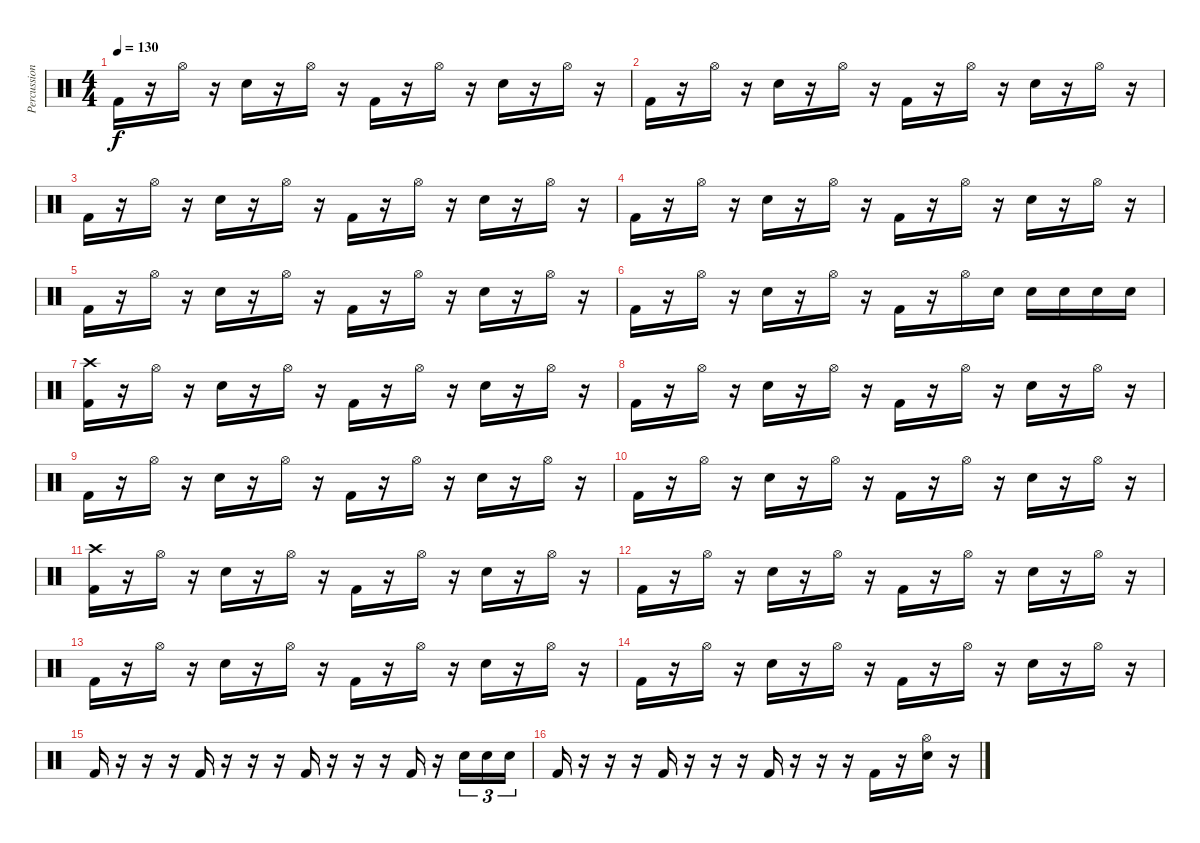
\track ("Percussion" "Percussion") {instrument percussion}
\staff {score}
\articulation defaults
\ts (4 4)
\tempo 130
\clef neutral
\ks c "Kick (hit) 2".16{dy f}
r.16 "Hi-Hat (open)".16 r.16 "Snare (hit) 2".16 r.16 "Hi-Hat (open)".16 r.16 "Kick (hit) 2".16 r.16 "Hi-Hat (open)".16 r.16 "Snare (hit) 2".16 r.16 "Hi-Hat (open)".16 r.16 |
"Kick (hit) 2".16 r.16 "Hi-Hat (open)".16 r.16 "Snare (hit) 2".16 r.16 "Hi-Hat (open)".16 r.16 "Kick (hit) 2".16 r.16 "Hi-Hat (open)".16 r.16 "Snare (hit) 2".16 r.16 "Hi-Hat (open)".16 r.16 |
"Kick (hit) 2".16 r.16 "Hi-Hat (open)".16 r.16 "Snare (hit) 2".16 r.16 "Hi-Hat (open)".16 r.16 "Kick (hit) 2".16 r.16 "Hi-Hat (open)".16 r.16 "Snare (hit) 2".16 r.16 "Hi-Hat (open)".16 r.16 |
"Kick (hit) 2".16 r.16 "Hi-Hat (open)".16 r.16 "Snare (hit) 2".16 r.16 "Hi-Hat (open)".16 r.16 "Kick (hit) 2".16 r.16 "Hi-Hat (open)".16 r.16 "Snare (hit) 2".16 r.16 "Hi-Hat (open)".16 r.16 |
"Kick (hit) 2".16 r.16 "Hi-Hat (open)".16 r.16 "Snare (hit) 2".16 r.16 "Hi-Hat (open)".16 r.16 "Kick (hit) 2".16 r.16 "Hi-Hat (open)".16 r.16 "Snare (hit) 2".16 r.16 "Hi-Hat (open)".16 r.16 |
"Kick (hit) 2".16 r.16 "Hi-Hat (open)".16 r.16 "Snare (hit) 2".16 r.16 "Hi-Hat (open)".16 r.16 "Kick (hit) 2".16 r.16 "Hi-Hat (open)".16 "Snare (hit) 2".16 "Snare (hit) 2".16 "Snare (hit) 2".16 "Snare (hit) 2".16 "Snare (hit) 2".16 |
("Crash high (hit)" "Kick (hit) 2").16 r.16 "Hi-Hat (open)".16 r.16 "Snare (hit) 2".16 r.16 "Hi-Hat (open)".16 r.16 "Kick (hit) 2".16 r.16 "Hi-Hat (open)".16 r.16 "Snare (hit) 2".16 r.16 "Hi-Hat (open)".16 r.16 |
"Kick (hit) 2".16 r.16 "Hi-Hat (open)".16 r.16 "Snare (hit) 2".16 r.16 "Hi-Hat (open)".16 r.16 "Kick (hit) 2".16 r.16 "Hi-Hat (open)".16 r.16 "Snare (hit) 2".16 r.16 "Hi-Hat (open)".16 r.16 |
"Kick (hit) 2".16 r.16 "Hi-Hat (open)".16 r.16 "Snare (hit) 2".16 r.16 "Hi-Hat (open)".16 r.16 "Kick (hit) 2".16 r.16 "Hi-Hat (open)".16 r.16 "Snare (hit) 2".16 r.16 "Hi-Hat (open)".16 r.16 |
"Kick (hit) 2".16 r.16 "Hi-Hat (open)".16 r.16 "Snare (hit) 2".16 r.16 "Hi-Hat (open)".16 r.16 "Kick (hit) 2".16 r.16 "Hi-Hat (open)".16 r.16 "Snare (hit) 2".16 r.16 "Hi-Hat (open)".16 r.16 |
("Crash high (hit)" "Kick (hit) 2").16 r.16 "Hi-Hat (open)".16 r.16 "Snare (hit) 2".16 r.16 "Hi-Hat (open)".16 r.16 "Kick (hit) 2".16 r.16 "Hi-Hat (open)".16 r.16 "Snare (hit) 2".16 r.16 "Hi-Hat (open)".16 r.16 |
"Kick (hit) 2".16 r.16 "Hi-Hat (open)".16 r.16 "Snare (hit) 2".16 r.16 "Hi-Hat (open)".16 r.16 "Kick (hit) 2".16 r.16 "Hi-Hat (open)".16 r.16 "Snare (hit) 2".16 r.16 "Hi-Hat (open)".16 r.16 |
"Kick (hit) 2".16 r.16 "Hi-Hat (open)".16 r.16 "Snare (hit) 2".16 r.16 "Hi-Hat (open)".16 r.16 "Kick (hit) 2".16 r.16 "Hi-Hat (open)".16 r.16 "Snare (hit) 2".16 r.16 "Hi-Hat (open)".16 r.16 |
"Kick (hit) 2".16 r.16 "Hi-Hat (open)".16 r.16 "Snare (hit) 2".16 r.16 "Hi-Hat (open)".16 r.16 "Kick (hit) 2".16 r.16 "Hi-Hat (open)".16 r.16 "Snare (hit) 2".16 r.16 "Hi-Hat (open)".16 r.16 |
"Kick (hit) 2".16{volume 8} r.16 r.16 r.16 "Kick (hit) 2".16 r.16 r.16 r.16 "Kick (hit) 2".16 r.16 r.16 r.16 "Kick (hit) 2".16 r.16 "Snare (hit) 2".16{tu (3 2)} "Snare (hit) 2".16{tu (3 2)} "Snare (hit) 2".16{tu (3 2)} |
"Kick (hit) 2".16 r.16 r.16 r.16 "Kick (hit) 2".16 r.16 r.16 r.16 "Kick (hit) 2".16 r.16 r.16 r.16 "Kick (hit) 2".16 r.16 ("Hi-Hat (open)" "Snare (hit) 2").16 r.16
